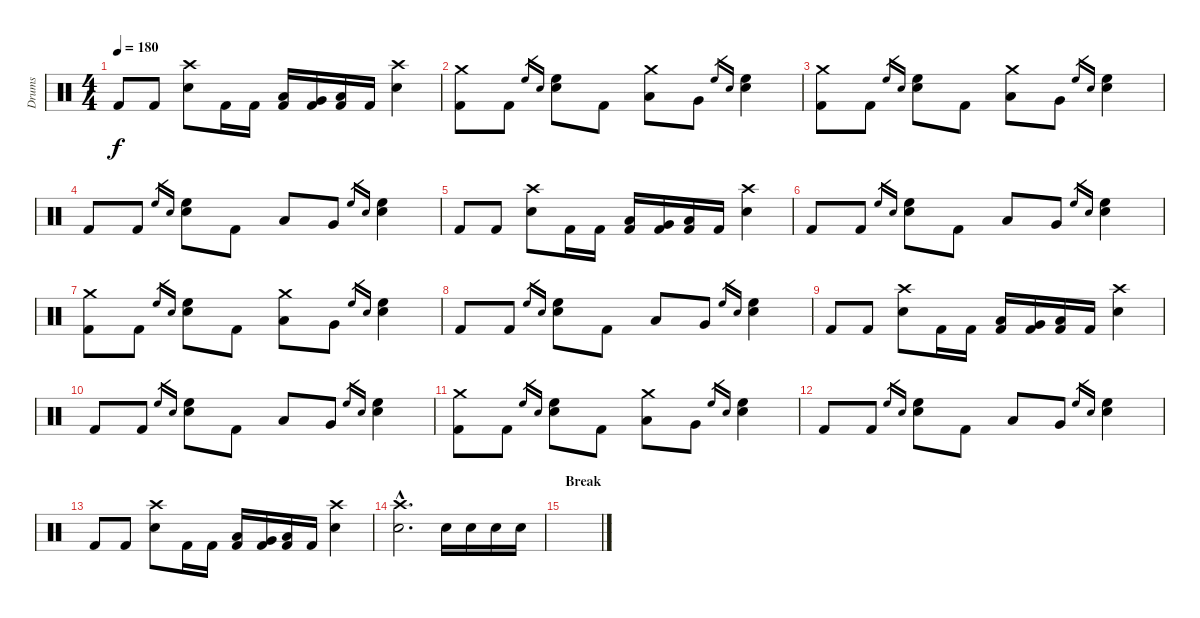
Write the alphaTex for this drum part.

\track ("Drums" "Drums") {instrument percussion}
\staff {score}
\articulation defaults
\ts (4 4)
\tempo 180
\clef neutral
\ks c "Kick (hit) 2".8{dy f} "Kick (hit) 2".8
("Crash high (hit)" "Electric Snare (hit)").8 "Kick (hit) 2".16 "Kick (hit) 2".16 ("Low Tom (hit)" "Kick (hit) 2").16 ("Very Low Tom (hit)" "Kick (hit) 2").16 ("Low Floor Tom (hit)" "Kick (hit) 2").16 "Kick (hit) 2".16 ("Crash high (hit)" "Electric Snare (hit)").4 |
("Crash medium (hit)" "Kick (hit) 2").8 "Kick (hit) 2".8 "High Floor Tom (hit)".16{gr} "Electric Snare (hit)".16{gr} ("High Floor Tom (hit)" "Electric Snare (hit)").8 "Kick (hit) 2".8 ("Crash medium (hit)" "Low Tom (hit)").8 "Very Low Tom (hit)".8 "High Floor Tom (hit)".16{gr} "Electric Snare (hit)".16{gr} ("High Floor Tom (hit)" "Electric Snare (hit)").4 |
("Crash medium (hit)" "Kick (hit) 2").8 "Kick (hit) 2".8 "High Floor Tom (hit)".16{gr} "Electric Snare (hit)".16{gr} ("High Floor Tom (hit)" "Electric Snare (hit)").8 "Kick (hit) 2".8 ("Crash medium (hit)" "Low Tom (hit)").8 "Very Low Tom (hit)".8 "High Floor Tom (hit)".16{gr} "Electric Snare (hit)".16{gr} ("High Floor Tom (hit)" "Electric Snare (hit)").4 |
"Kick (hit) 2".8 "Kick (hit) 2".8 "High Floor Tom (hit)".16{gr} "Electric Snare (hit)".16{gr} ("High Floor Tom (hit)" "Electric Snare (hit)").8 "Kick (hit) 2".8 "Low Tom (hit)".8 "Very Low Tom (hit)".8 "High Floor Tom (hit)".16{gr} "Electric Snare (hit)".16{gr} ("High Floor Tom (hit)" "Electric Snare (hit)").4 |
"Kick (hit) 2".8 "Kick (hit) 2".8 ("Crash high (hit)" "Electric Snare (hit)").8 "Kick (hit) 2".16 "Kick (hit) 2".16 ("Low Tom (hit)" "Kick (hit) 2").16 ("Very Low Tom (hit)" "Kick (hit) 2").16 ("Low Floor Tom (hit)" "Kick (hit) 2").16 "Kick (hit) 2".16 ("Crash high (hit)" "Electric Snare (hit)").4 |
"Kick (hit) 2".8 "Kick (hit) 2".8 "High Floor Tom (hit)".16{gr} "Electric Snare (hit)".16{gr} ("High Floor Tom (hit)" "Electric Snare (hit)").8 "Kick (hit) 2".8 "Low Tom (hit)".8 "Very Low Tom (hit)".8 "High Floor Tom (hit)".16{gr} "Electric Snare (hit)".16{gr} ("High Floor Tom (hit)" "Electric Snare (hit)").4 |
("Crash medium (hit)" "Kick (hit) 2").8 "Kick (hit) 2".8 "High Floor Tom (hit)".16{gr} "Electric Snare (hit)".16{gr} ("High Floor Tom (hit)" "Electric Snare (hit)").8 "Kick (hit) 2".8 ("Crash medium (hit)" "Low Tom (hit)").8 "Very Low Tom (hit)".8 "High Floor Tom (hit)".16{gr} "Electric Snare (hit)".16{gr} ("High Floor Tom (hit)" "Electric Snare (hit)").4 |
"Kick (hit) 2".8 "Kick (hit) 2".8 "High Floor Tom (hit)".16{gr} "Electric Snare (hit)".16{gr} ("High Floor Tom (hit)" "Electric Snare (hit)").8 "Kick (hit) 2".8 "Low Tom (hit)".8 "Very Low Tom (hit)".8 "High Floor Tom (hit)".16{gr} "Electric Snare (hit)".16{gr} ("High Floor Tom (hit)" "Electric Snare (hit)").4 |
"Kick (hit) 2".8 "Kick (hit) 2".8 ("Crash high (hit)" "Electric Snare (hit)").8 "Kick (hit) 2".16 "Kick (hit) 2".16 ("Low Tom (hit)" "Kick (hit) 2").16 ("Very Low Tom (hit)" "Kick (hit) 2").16 ("Low Floor Tom (hit)" "Kick (hit) 2").16 "Kick (hit) 2".16 ("Crash high (hit)" "Electric Snare (hit)").4 |
"Kick (hit) 2".8 "Kick (hit) 2".8 "High Floor Tom (hit)".16{gr} "Electric Snare (hit)".16{gr} ("High Floor Tom (hit)" "Electric Snare (hit)").8 "Kick (hit) 2".8 "Low Tom (hit)".8 "Very Low Tom (hit)".8 "High Floor Tom (hit)".16{gr} "Electric Snare (hit)".16{gr} ("High Floor Tom (hit)" "Electric Snare (hit)").4 |
("Crash medium (hit)" "Kick (hit) 2").8 "Kick (hit) 2".8 "High Floor Tom (hit)".16{gr} "Electric Snare (hit)".16{gr} ("High Floor Tom (hit)" "Electric Snare (hit)").8 "Kick (hit) 2".8 ("Crash medium (hit)" "Low Tom (hit)").8 "Very Low Tom (hit)".8 "High Floor Tom (hit)".16{gr} "Electric Snare (hit)".16{gr} ("High Floor Tom (hit)" "Electric Snare (hit)").4 |
"Kick (hit) 2".8 "Kick (hit) 2".8 "High Floor Tom (hit)".16{gr} "Electric Snare (hit)".16{gr} ("High Floor Tom (hit)" "Electric Snare (hit)").8 "Kick (hit) 2".8 "Low Tom (hit)".8 "Very Low Tom (hit)".8 "High Floor Tom (hit)".16{gr} "Electric Snare (hit)".16{gr} ("High Floor Tom (hit)" "Electric Snare (hit)").4 |
"Kick (hit) 2".8 "Kick (hit) 2".8 ("Crash high (hit)" "Electric Snare (hit)").8 "Kick (hit) 2".16 "Kick (hit) 2".16 ("Low Tom (hit)" "Kick (hit) 2").16 ("Very Low Tom (hit)" "Kick (hit) 2").16 ("Low Floor Tom (hit)" "Kick (hit) 2").16 "Kick (hit) 2".16 ("Crash high (hit)" "Electric Snare (hit)").4 |
("Electric Snare (hit)"{hac} "Crash high (hit)"{hac}).2{d} "Electric Snare (hit)".16 "Electric Snare (hit)".16 "Electric Snare (hit)".16 "Electric Snare (hit)".16 |
\section ("" "Break")
